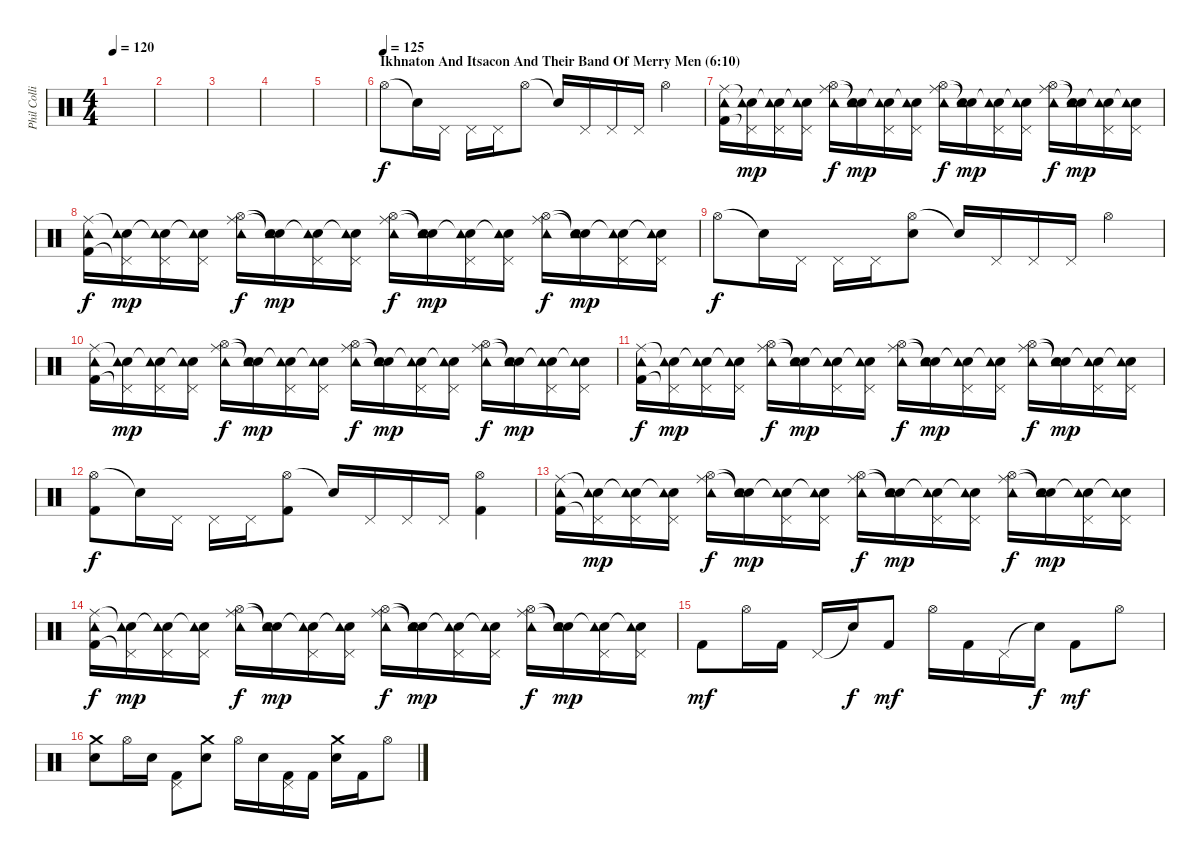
\track ("Phil Collins (drums)" "Phil Colli") {instrument percussion}
\staff {score}
\articulation defaults
\ts (4 4)
\tempo 120
\clef neutral
\ks c
|
|
|
|
|
\section ("" "Ikhnaton And Itsacon And Their Band Of Merry Men (6:10)")
\tempo (125)
"Hi-Hat (open)".8 "Snare (hit)"{t}.16 "Pedal Hi-Hat (hit)".16 "Pedal Hi-Hat (hit)".16 "Pedal Hi-Hat (hit)".16 "Hi-Hat (open)".8 "Snare (hit)"{t}.16 "Pedal Hi-Hat (hit)".16 "Pedal Hi-Hat (hit)".16 "Pedal Hi-Hat (hit)".16 "Hi-Hat (open)".4 |
("Ride (middle)" "Tambourine (hit)" "Kick (hit) 2").16 ("Snare (hit)"{t} "Tambourine (hit)" "Pedal Hi-Hat (hit)"{t}).16{dy mp} ("Snare (hit)"{t} "Tambourine (hit)" "Pedal Hi-Hat (hit)").16 ("Snare (hit)"{t} "Tambourine (hit)" "Pedal Hi-Hat (hit)").16 ("Ride (middle)" "Tambourine (hit)" "Hi-Hat (open)").16{dy f} ("Snare (hit)"{t} "Tambourine (hit)" "Snare (hit)"{t}).16{dy mp} ("Snare (hit)"{t} "Tambourine (hit)" "Pedal Hi-Hat (hit)").16 ("Snare (hit)"{t} "Tambourine (hit)" "Pedal Hi-Hat (hit)").16 ("Ride (middle)" "Tambourine (hit)" "Hi-Hat (open)").16{dy f} ("Snare (hit)"{t} "Tambourine (hit)" "Snare (hit)"{t}).16{dy mp} ("Snare (hit)"{t} "Tambourine (hit)" "Pedal Hi-Hat (hit)").16 ("Snare (hit)"{t} "Tambourine (hit)" "Pedal Hi-Hat (hit)").16 ("Ride (middle)" "Tambourine (hit)" "Hi-Hat (open)").16{dy f} ("Snare (hit)"{t} "Tambourine (hit)" "Snare (hit)"{t}).16{dy mp} ("Snare (hit)"{t} "Tambourine (hit)" "Pedal Hi-Hat (hit)").16 ("Snare (hit)"{t} "Tambourine (hit)" "Pedal Hi-Hat (hit)").16 |
("Ride (middle)" "Tambourine (hit)" "Kick (hit) 2").16{dy f} ("Snare (hit)"{t} "Tambourine (hit)" "Pedal Hi-Hat (hit)"{t}).16{dy mp} ("Snare (hit)"{t} "Tambourine (hit)" "Pedal Hi-Hat (hit)").16 ("Snare (hit)"{t} "Tambourine (hit)" "Pedal Hi-Hat (hit)").16 ("Ride (middle)" "Tambourine (hit)" "Hi-Hat (open)").16{dy f} ("Snare (hit)"{t} "Tambourine (hit)" "Snare (hit)"{t}).16{dy mp} ("Snare (hit)"{t} "Tambourine (hit)" "Pedal Hi-Hat (hit)").16 ("Snare (hit)"{t} "Tambourine (hit)" "Pedal Hi-Hat (hit)").16 ("Ride (middle)" "Tambourine (hit)" "Hi-Hat (open)").16{dy f} ("Snare (hit)"{t} "Tambourine (hit)" "Snare (hit)"{t}).16{dy mp} ("Snare (hit)"{t} "Tambourine (hit)" "Pedal Hi-Hat (hit)").16 ("Snare (hit)"{t} "Tambourine (hit)" "Pedal Hi-Hat (hit)").16 ("Ride (middle)" "Tambourine (hit)" "Hi-Hat (open)").16{dy f} ("Snare (hit)"{t} "Tambourine (hit)" "Snare (hit)"{t}).16{dy mp} ("Snare (hit)"{t} "Tambourine (hit)" "Pedal Hi-Hat (hit)").16 ("Snare (hit)"{t} "Tambourine (hit)" "Pedal Hi-Hat (hit)").16 |
"Hi-Hat (open)".8{dy f} "Snare (hit)"{t}.16 "Pedal Hi-Hat (hit)".16 "Pedal Hi-Hat (hit)".16 "Pedal Hi-Hat (hit)".16 ("Hi-Hat (open)" "Electric Snare (hit)").8 "Snare (hit)"{t}.16 "Pedal Hi-Hat (hit)".16 "Pedal Hi-Hat (hit)".16 "Pedal Hi-Hat (hit)".16 "Hi-Hat (open)".4 |
("Ride (middle)" "Tambourine (hit)" "Kick (hit) 2").16 ("Snare (hit)"{t} "Tambourine (hit)" "Pedal Hi-Hat (hit)"{t}).16{dy mp} ("Snare (hit)"{t} "Tambourine (hit)" "Pedal Hi-Hat (hit)").16 ("Snare (hit)"{t} "Tambourine (hit)" "Pedal Hi-Hat (hit)").16 ("Ride (middle)" "Tambourine (hit)" "Hi-Hat (open)").16{dy f} ("Snare (hit)"{t} "Tambourine (hit)" "Snare (hit)"{t}).16{dy mp} ("Snare (hit)"{t} "Tambourine (hit)" "Pedal Hi-Hat (hit)").16 ("Snare (hit)"{t} "Tambourine (hit)" "Pedal Hi-Hat (hit)").16 ("Ride (middle)" "Tambourine (hit)" "Hi-Hat (open)").16{dy f} ("Snare (hit)"{t} "Tambourine (hit)" "Snare (hit)"{t}).16{dy mp} ("Snare (hit)"{t} "Tambourine (hit)" "Pedal Hi-Hat (hit)").16 ("Snare (hit)"{t} "Tambourine (hit)" "Pedal Hi-Hat (hit)").16 ("Ride (middle)" "Tambourine (hit)" "Hi-Hat (open)").16{dy f} ("Snare (hit)"{t} "Tambourine (hit)" "Snare (hit)"{t}).16{dy mp} ("Snare (hit)"{t} "Tambourine (hit)" "Pedal Hi-Hat (hit)").16 ("Snare (hit)"{t} "Tambourine (hit)" "Pedal Hi-Hat (hit)").16 |
("Ride (middle)" "Tambourine (hit)" "Kick (hit) 2").16{dy f} ("Snare (hit)"{t} "Tambourine (hit)" "Pedal Hi-Hat (hit)"{t}).16{dy mp} ("Snare (hit)"{t} "Tambourine (hit)" "Pedal Hi-Hat (hit)").16 ("Snare (hit)"{t} "Tambourine (hit)" "Pedal Hi-Hat (hit)").16 ("Ride (middle)" "Tambourine (hit)" "Hi-Hat (open)").16{dy f} ("Snare (hit)"{t} "Tambourine (hit)" "Snare (hit)"{t}).16{dy mp} ("Snare (hit)"{t} "Tambourine (hit)" "Pedal Hi-Hat (hit)").16 ("Snare (hit)"{t} "Tambourine (hit)" "Pedal Hi-Hat (hit)").16 ("Ride (middle)" "Tambourine (hit)" "Hi-Hat (open)").16{dy f} ("Snare (hit)"{t} "Tambourine (hit)" "Snare (hit)"{t}).16{dy mp} ("Snare (hit)"{t} "Tambourine (hit)" "Pedal Hi-Hat (hit)").16 ("Snare (hit)"{t} "Tambourine (hit)" "Pedal Hi-Hat (hit)").16 ("Ride (middle)" "Tambourine (hit)" "Hi-Hat (open)").16{dy f} ("Snare (hit)"{t} "Tambourine (hit)" "Snare (hit)"{t}).16{dy mp} ("Snare (hit)"{t} "Tambourine (hit)" "Pedal Hi-Hat (hit)").16 ("Snare (hit)"{t} "Tambourine (hit)" "Pedal Hi-Hat (hit)").16 |
("Hi-Hat (open)" "Kick (hit) 2").8{dy f} "Snare (hit)"{t}.16 "Pedal Hi-Hat (hit)".16 "Pedal Hi-Hat (hit)".16 "Pedal Hi-Hat (hit)".16 ("Hi-Hat (open)" "Kick (hit) 2").8 "Snare (hit)"{t}.16 "Pedal Hi-Hat (hit)".16 "Pedal Hi-Hat (hit)".16 "Pedal Hi-Hat (hit)".16 ("Hi-Hat (open)" "Kick (hit) 2").4 |
("Ride (middle)" "Tambourine (hit)" "Kick (hit) 2").16 ("Snare (hit)"{t} "Tambourine (hit)" "Pedal Hi-Hat (hit)"{t}).16{dy mp} ("Snare (hit)"{t} "Tambourine (hit)" "Pedal Hi-Hat (hit)").16 ("Snare (hit)"{t} "Tambourine (hit)" "Pedal Hi-Hat (hit)").16 ("Ride (middle)" "Tambourine (hit)" "Hi-Hat (open)").16{dy f} ("Snare (hit)"{t} "Tambourine (hit)" "Snare (hit)"{t}).16{dy mp} ("Snare (hit)"{t} "Tambourine (hit)" "Pedal Hi-Hat (hit)").16 ("Snare (hit)"{t} "Tambourine (hit)" "Pedal Hi-Hat (hit)").16 ("Ride (middle)" "Tambourine (hit)" "Hi-Hat (open)").16{dy f} ("Snare (hit)"{t} "Tambourine (hit)" "Snare (hit)"{t}).16{dy mp} ("Snare (hit)"{t} "Tambourine (hit)" "Pedal Hi-Hat (hit)").16 ("Snare (hit)"{t} "Tambourine (hit)" "Pedal Hi-Hat (hit)").16 ("Ride (middle)" "Tambourine (hit)" "Hi-Hat (open)").16{dy f} ("Snare (hit)"{t} "Tambourine (hit)" "Snare (hit)"{t}).16{dy mp} ("Snare (hit)"{t} "Tambourine (hit)" "Pedal Hi-Hat (hit)").16 ("Snare (hit)"{t} "Tambourine (hit)" "Pedal Hi-Hat (hit)").16 |
("Ride (middle)" "Tambourine (hit)" "Kick (hit) 2").16{dy f} ("Snare (hit)"{t} "Tambourine (hit)" "Pedal Hi-Hat (hit)"{t}).16{dy mp} ("Snare (hit)"{t} "Tambourine (hit)" "Pedal Hi-Hat (hit)").16 ("Snare (hit)"{t} "Tambourine (hit)" "Pedal Hi-Hat (hit)").16 ("Ride (middle)" "Tambourine (hit)" "Hi-Hat (open)").16{dy f} ("Snare (hit)"{t} "Tambourine (hit)" "Snare (hit)"{t}).16{dy mp} ("Snare (hit)"{t} "Tambourine (hit)" "Pedal Hi-Hat (hit)").16 ("Snare (hit)"{t} "Tambourine (hit)" "Pedal Hi-Hat (hit)").16 ("Ride (middle)" "Tambourine (hit)" "Hi-Hat (open)").16{dy f} ("Snare (hit)"{t} "Tambourine (hit)" "Snare (hit)"{t}).16{dy mp} ("Snare (hit)"{t} "Tambourine (hit)" "Pedal Hi-Hat (hit)").16 ("Snare (hit)"{t} "Tambourine (hit)" "Pedal Hi-Hat (hit)").16 ("Ride (middle)" "Tambourine (hit)" "Hi-Hat (open)").16{dy f} ("Snare (hit)"{t} "Tambourine (hit)" "Snare (hit)"{t}).16{dy mp} ("Snare (hit)"{t} "Tambourine (hit)" "Pedal Hi-Hat (hit)").16 ("Snare (hit)"{t} "Tambourine (hit)" "Pedal Hi-Hat (hit)").16 |
"Kick (hit) 2".8{dy mf} "Hi-Hat (open)".16 "Kick (hit) 2".16 "Pedal Hi-Hat (hit)".16 "Snare (hit)"{t}.16{dy f} "Kick (hit) 2".8{dy mf} "Hi-Hat (open)".16 "Kick (hit) 2".16 "Pedal Hi-Hat (hit)".16 "Snare (hit)"{t}.16{dy f} "Kick (hit) 2".8{dy mf} "Hi-Hat (open)".8 |
("Crash medium (hit)" "Electric Snare (hit)").8 "Hi-Hat (open)".16 "Electric Snare (hit)".16 ("Pedal Hi-Hat (hit)" "Kick (hit) 2").8 ("Crash medium (hit)" "Electric Snare (hit)").8 "Hi-Hat (open)".16 "Electric Snare (hit)".16 ("Pedal Hi-Hat (hit)" "Kick (hit) 2").16 "Kick (hit) 2".16 ("Crash medium (hit)" "Electric Snare (hit)").16 "Kick (hit) 2".16 "Hi-Hat (open)".8
